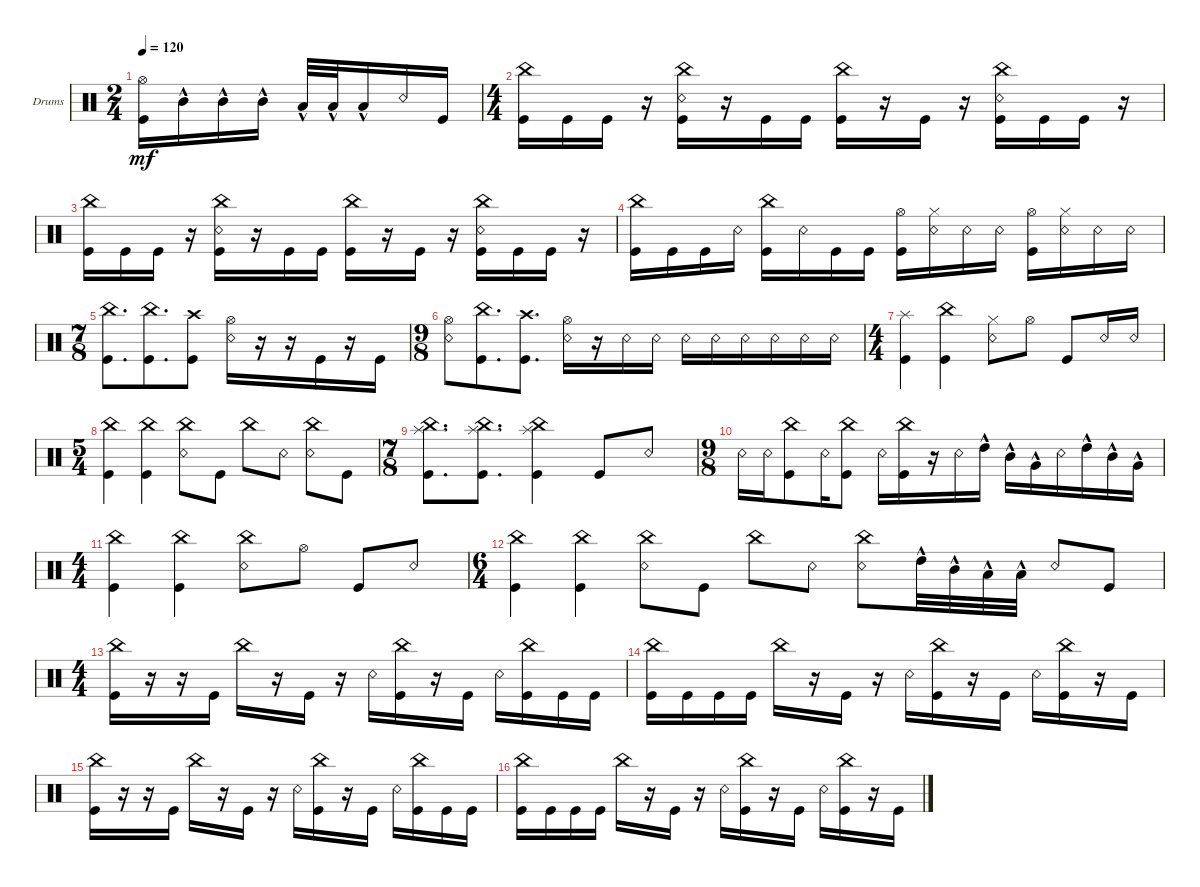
\defaultSystemsLayout 4
\bracketExtendMode groupsimilarinstruments
\firstSystemTrackNameOrientation horizontal
\otherSystemsTrackNameOrientation horizontal
\track ("Drumkit" "Drums") {instrument percussion}
\staff {score}
\articulation defaults
\ts (2 4)
\tempo 120
\clef neutral
\ks c
("Kick (hit)" "Hi-Hat (open)").16{dy mf} "Mid Tom (hit)"{hac}.16 "Mid Tom (hit)"{hac}.16 "Mid Tom (hit)"{hac}.16 "Low Tom (hit)"{hac}.32 "Low Tom (hit)"{hac}.32 "Low Tom (hit)"{hac}.16 "Snare (rim shot)".16 "Kick (hit)".16 |
\ts (4 4)
("Kick (hit)" "China (hit)").16 "Kick (hit)".16 "Kick (hit)".16 r.16 ("Kick (hit)" "China (hit)" "Snare (rim shot)").16 r.16 "Kick (hit)".16 "Kick (hit)".16 ("Kick (hit)" "China (hit)").16 r.16 "Kick (hit)".16 r.16 ("Kick (hit)" "Snare (rim shot)" "China (hit)").16 "Kick (hit)".16 "Kick (hit)".16 r.16 |
("Kick (hit)" "China (hit)").16 "Kick (hit)".16 "Kick (hit)".16 r.16 ("Kick (hit)" "China (hit)" "Snare (rim shot)").16 r.16 "Kick (hit)".16 "Kick (hit)".16 ("Kick (hit)" "China (hit)").16 r.16 "Kick (hit)".16 r.16 ("Kick (hit)" "Snare (rim shot)" "China (hit)").16 "Kick (hit)".16 "Kick (hit)".16 r.16 |
("Kick (hit)" "China (hit)").16 "Kick (hit)".16 "Kick (hit)".16 "Snare (rim shot)".16 ("Kick (hit)" "China (hit)").16 "Snare (rim shot)".16 "Kick (hit)".16 "Kick (hit)".16 ("Kick (hit)" "Hi-Hat (open)").16 ("Snare (rim shot)" "Hi-Hat (closed)").16 "Snare (rim shot)".16 "Snare (rim shot)".16 ("Kick (hit)" "Hi-Hat (open)").16 ("Snare (rim shot)" "Hi-Hat (closed)").16 "Snare (rim shot)".16 "Snare (rim shot)".16 |
\ts (7 8)
("Kick (hit)" "China (hit)").8{d} ("Kick (hit)" "China (hit)").8{d} ("Kick (hit)" "Crash high (hit)").8 ("Snare (rim shot)" "Hi-Hat (open)").16 r.16 r.16 "Kick (hit)".16 r.16 "Kick (hit)".16 |
\ts (9 8)
("Snare (rim shot)" "Hi-Hat (open)").8 ("Kick (hit)" "China (hit)").8{d} ("Kick (hit)" "Crash high (hit)").8{d} ("Snare (rim shot)" "Hi-Hat (open)").16 r.16 "Snare (rim shot)".16 "Snare (rim shot)".16 "Snare (rim shot)".16 "Snare (rim shot)".16 "Snare (rim shot)".16 "Snare (rim shot)".16 "Snare (rim shot)".16 "Snare (rim shot)".16 |
\ts (4 4)
("Splash (hit)" "Kick (hit)").4 ("Kick (hit)" "China (hit)").4 ("Snare (rim shot)" "Hi-Hat (closed)").8 "Hi-Hat (open)".8 "Kick (hit)".8 "Snare (rim shot)".16 "Snare (rim shot)".16 |
\ts (5 4)
("China (hit)" "Kick (hit)").4 ("Kick (hit)" "China (hit)").4 ("Snare (rim shot)" "China (hit)").8 "Kick (hit)".8 "China (hit)".8 "Snare (rim shot)".8 ("Snare (rim shot)" "China (hit)").8 "Kick (hit)".8 |
\ts (7 8)
("China (hit)" "Splash (hit)" "Kick (hit)").8{d} ("Splash (hit)" "China (hit)" "Kick (hit)").8{d} ("Splash (hit)" "China (hit)" "Kick (hit)").4 "Kick (hit)".8 "Snare (rim shot)".8 |
\ts (9 8)
"Snare (rim shot)".16 "Snare (rim shot)".16 ("China (hit)" "Kick (hit)").8 "Snare (rim shot)".16 ("China (hit)" "Kick (hit)").8 "Snare (rim shot)".16 ("Kick (hit)" "China (hit)").16 r.16 "Snare (rim shot)".16 "High Tom (hit)"{hac}.16 "Mid Tom (hit)"{hac}.16 "Very Low Tom (hit)"{hac}.16 "Snare (rim shot)".16 "High Tom (hit)"{hac}.16 "Mid Tom (hit)"{hac}.16 "Very Low Tom (hit)"{hac}.16 |
\ts (4 4)
("Kick (hit)" "China (hit)").4 ("Kick (hit)" "China (hit)").4 ("Snare (rim shot)" "China (hit)").8 "Hi-Hat (open)".8 "Kick (hit)".8 "Snare (rim shot)".8 |
\ts (6 4)
\scale
0.381903 ("China (hit)" "Kick (hit)").4 ("Kick (hit)" "China (hit)").4 ("Snare (rim shot)" "China (hit)").8 "Kick (hit)".8 "China (hit)".8 "Snare (rim shot)".8 ("Snare (rim shot)" "China (hit)").8 "High Tom (hit)"{hac}.32 "Mid Tom (hit)"{hac}.32 "Low Tom (hit)"{hac}.32 "Low Tom (hit)"{hac}.32 "Snare (rim shot)".8 "Kick (hit)".8 |
\ts (4 4)
("Kick (hit)" "China (hit)").16 r.16 r.16 "Kick (hit)".16 "China (hit)".16 r.16 "Kick (hit)".16 r.16 "Snare (rim shot)".16 ("Kick (hit)" "China (hit)").16 r.16 "Kick (hit)".16 "Snare (rim shot)".16 ("Kick (hit)" "China (hit)").16 "Kick (hit)".16 "Kick (hit)".16 |
("Kick (hit)" "China (hit)").16 "Kick (hit)".16 "Kick (hit)".16 "Kick (hit)".16 "China (hit)".16 r.16 "Kick (hit)".16 r.16 "Snare (rim shot)".16 ("Kick (hit)" "China (hit)").16 r.16 "Kick (hit)".16 "Snare (rim shot)".16 ("Kick (hit)" "China (hit)").16 r.16 "Kick (hit)".16 |
("Kick (hit)" "China (hit)").16 r.16 r.16 "Kick (hit)".16 "China (hit)".16 r.16 "Kick (hit)".16 r.16 "Snare (rim shot)".16 ("Kick (hit)" "China (hit)").16 r.16 "Kick (hit)".16 "Snare (rim shot)".16 ("Kick (hit)" "China (hit)").16 "Kick (hit)".16 "Kick (hit)".16 |
("Kick (hit)" "China (hit)").16 "Kick (hit)".16 "Kick (hit)".16 "Kick (hit)".16 "China (hit)".16 r.16 "Kick (hit)".16 r.16 "Snare (rim shot)".16 ("Kick (hit)" "China (hit)").16 r.16 "Kick (hit)".16 "Snare (rim shot)".16 ("Kick (hit)" "China (hit)").16 r.16 "Kick (hit)".16
